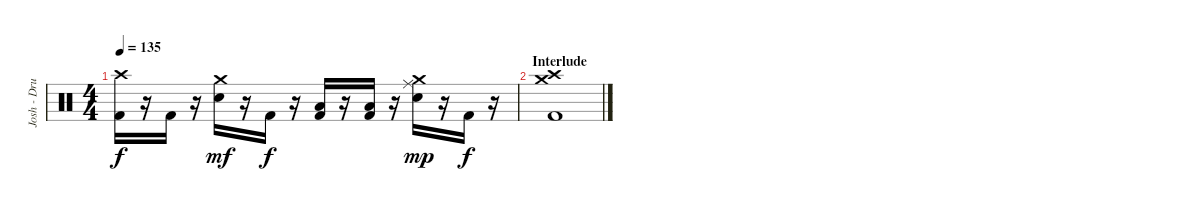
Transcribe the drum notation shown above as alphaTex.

\track ("Josh - Drums" "Josh - Dru") {instrument percussion}
\staff {score}
\articulation defaults
\ts (4 4)
\tempo 135
\clef neutral
\ks c
("Crash high (hit)" "Kick (hit) 2").16{dy f} r.16 "Kick (hit) 2".16 r.16 ("Crash medium (hit)" "Electric Snare (hit)").16{dy mf} r.16 "Kick (hit) 2".16{dy f} r.16 ("Low Floor Tom (hit)" "Kick (hit) 2").16 r.16 ("Low Floor Tom (hit)" "Kick (hit) 2").16 r.16 ("Crash medium (hit)" "Ride (middle)" "Electric Snare (hit)").16{dy mp} r.16 "Kick (hit) 2".16{dy f} r.16 |
\section ("" "Interlude")
("Crash high (hit)" "Crash medium (hit)" "Kick (hit) 2").1
